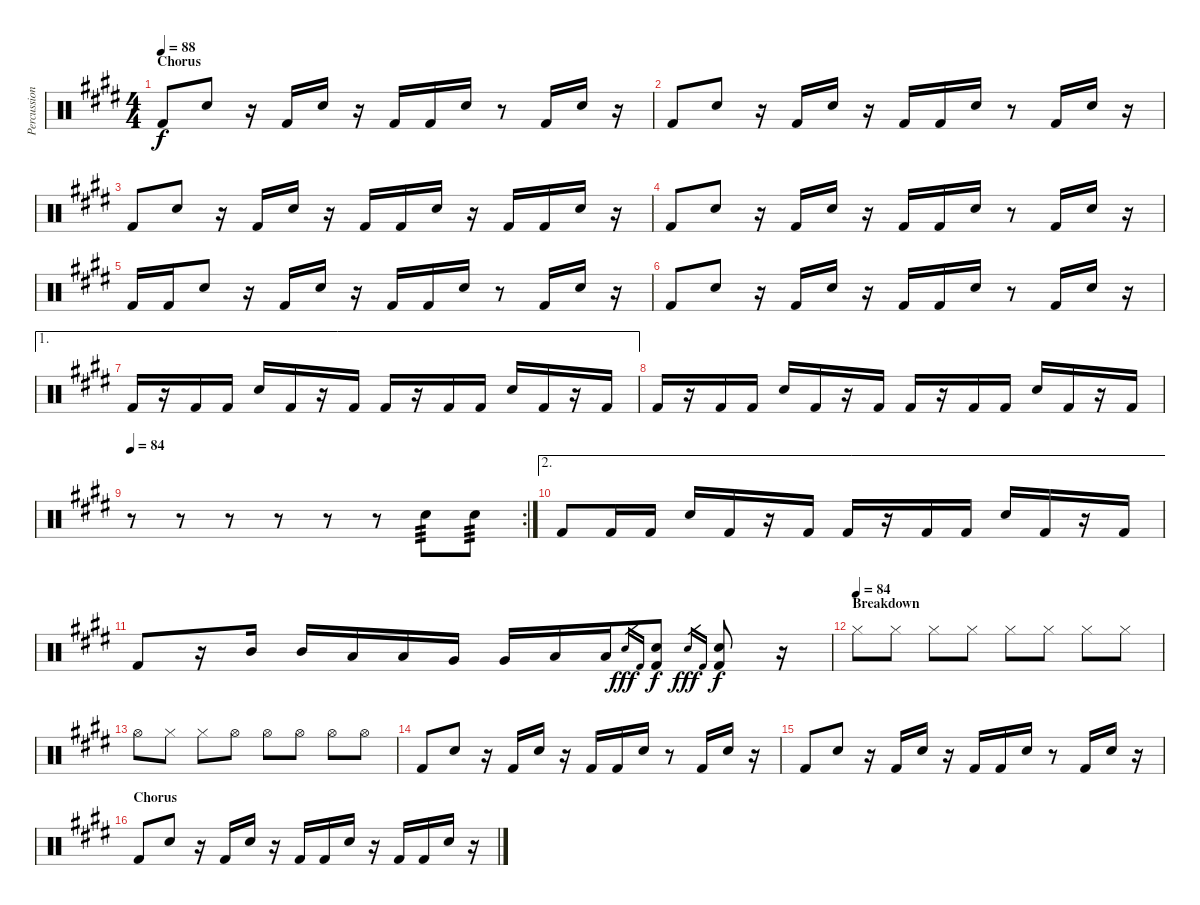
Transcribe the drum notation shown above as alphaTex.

\track ("Percussion" "Percussion") {instrument percussion}
\staff {score}
\articulation defaults
\ts (4 4)
\section ("" "Chorus")
\tempo 88
\clef neutral
\ks e "Kick (hit) 2".8{dy f} "Snare (hit) 2".8
r.16 "Kick (hit) 2".16 "Snare (hit) 2".16 r.16 "Kick (hit) 2".16 "Kick (hit) 2".16 "Snare (hit) 2".16 r.8 "Kick (hit) 2".16 "Snare (hit) 2".16 r.16 |
"Kick (hit) 2".8 "Snare (hit) 2".8 r.16 "Kick (hit) 2".16 "Snare (hit) 2".16 r.16 "Kick (hit) 2".16 "Kick (hit) 2".16 "Snare (hit) 2".16 r.8 "Kick (hit) 2".16 "Snare (hit) 2".16 r.16 |
"Kick (hit) 2".8 "Snare (hit) 2".8 r.16 "Kick (hit) 2".16 "Snare (hit) 2".16 r.16 "Kick (hit) 2".16 "Kick (hit) 2".16 "Snare (hit) 2".16 r.16 "Kick (hit) 2".16 "Kick (hit) 2".16 "Snare (hit) 2".16 r.16 |
"Kick (hit) 2".8 "Snare (hit) 2".8 r.16 "Kick (hit) 2".16 "Snare (hit) 2".16 r.16 "Kick (hit) 2".16 "Kick (hit) 2".16 "Snare (hit) 2".16 r.8 "Kick (hit) 2".16 "Snare (hit) 2".16 r.16 |
"Kick (hit) 2".16 "Kick (hit) 2".16 "Snare (hit) 2".8 r.16 "Kick (hit) 2".16 "Snare (hit) 2".16 r.16 "Kick (hit) 2".16 "Kick (hit) 2".16 "Snare (hit) 2".16 r.8 "Kick (hit) 2".16 "Snare (hit) 2".16 r.16 |
"Kick (hit) 2".8 "Snare (hit) 2".8 r.16 "Kick (hit) 2".16 "Snare (hit) 2".16 r.16 "Kick (hit) 2".16 "Kick (hit) 2".16 "Snare (hit) 2".16 r.8 "Kick (hit) 2".16 "Snare (hit) 2".16 r.16 |
\ae 1 "Kick (hit) 2".16
r.16 "Kick (hit) 2".16 "Kick (hit) 2".16 "Snare (hit) 2".16 "Kick (hit) 2".16 r.16 "Kick (hit) 2".16 "Kick (hit) 2".16 r.16 "Kick (hit) 2".16 "Kick (hit) 2".16 "Snare (hit) 2".16 "Kick (hit) 2".16 r.16 "Kick (hit) 2".16 |
"Kick (hit) 2".16 r.16 "Kick (hit) 2".16 "Kick (hit) 2".16 "Snare (hit) 2".16 "Kick (hit) 2".16 r.16 "Kick (hit) 2".16 "Kick (hit) 2".16 r.16 "Kick (hit) 2".16 "Kick (hit) 2".16 "Snare (hit) 2".16 "Kick (hit) 2".16 r.16 "Kick (hit) 2".16 |
\rc 2
\tempo 84
r.8 r.8 r.8 r.8 r.8 r.8 "Snare (hit) 2".8{tp 3} "Snare (hit) 2".8{tp 3} |
\ae 2 "Kick (hit) 2".8 "Kick (hit) 2".16 "Kick (hit) 2".16 "Snare (hit) 2".16 "Kick (hit) 2".16
r.16 "Kick (hit) 2".16 "Kick (hit) 2".16 r.16 "Kick (hit) 2".16 "Kick (hit) 2".16 "Snare (hit) 2".16 "Kick (hit) 2".16 r.16 "Kick (hit) 2".16 |
"Kick (hit) 2".8 r.16 "Mid Tom (hit)".16 "Mid Tom (hit)".16 "Low Tom (hit)".16 "Low Tom (hit)".16 "Very Low Tom (hit)".16 "Very Low Tom (hit)".16 "Low Floor Tom (hit)".16 "Low Floor Tom (hit)".16 "Snare (hit) 2"{h}.16{gr dy fff} "Kick (hit) 2"{h}.16{gr} ("Snare (hit) 2" "Kick (hit) 2").8{dy f} "Snare (hit) 2"{h}.16{gr dy fff} "Kick (hit) 2"{h}.16{gr} ("Snare (hit) 2" "Kick (hit) 2").8{dy f} r.16 |
\section ("" "Breakdown")
\tempo (84)
"Hi-Hat (closed)".8 "Hi-Hat (closed)".8 "Hi-Hat (closed)".8 "Hi-Hat (closed)".8 "Hi-Hat (closed)".8 "Hi-Hat (closed)".8 "Hi-Hat (closed)".8 "Hi-Hat (closed)".8 |
"Hi-Hat (open)".8 "Hi-Hat (closed)".8 "Hi-Hat (closed)".8 "Hi-Hat (open)".8{volume 11} "Hi-Hat (open)".8{volume 12} "Hi-Hat (open)".8{volume 13} "Hi-Hat (open)".8{volume 14} "Hi-Hat (open)".8{volume 15} |
"Kick (hit) 2".8 "Snare (hit) 2".8 r.16 "Kick (hit) 2".16 "Snare (hit) 2".16 r.16 "Kick (hit) 2".16 "Kick (hit) 2".16 "Snare (hit) 2".16 r.8 "Kick (hit) 2".16 "Snare (hit) 2".16 r.16 |
"Kick (hit) 2".8 "Snare (hit) 2".8 r.16 "Kick (hit) 2".16 "Snare (hit) 2".16 r.16 "Kick (hit) 2".16 "Kick (hit) 2".16 "Snare (hit) 2".16 r.8 "Kick (hit) 2".16 "Snare (hit) 2".16 r.16 |
\section ("" "Chorus")
"Kick (hit) 2".8 "Snare (hit) 2".8 r.16 "Kick (hit) 2".16 "Snare (hit) 2".16 r.16 "Kick (hit) 2".16 "Kick (hit) 2".16 "Snare (hit) 2".16 r.16 "Kick (hit) 2".16 "Kick (hit) 2".16 "Snare (hit) 2".16 r.16
